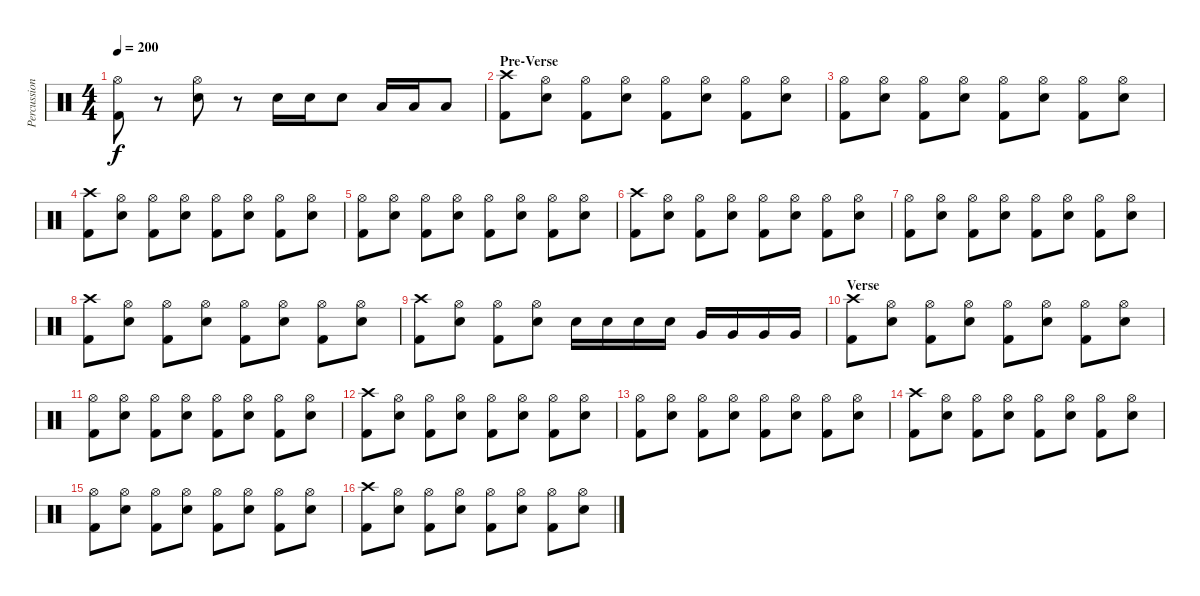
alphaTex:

\track ("Percussion" "Percussion") {instrument percussion}
\staff {score}
\articulation defaults
\ts (4 4)
\tempo 200
\clef neutral
\ks c
("Hi-Hat (open)" "Kick (hit) 2").8{dy f} r.8 ("Hi-Hat (open)" "Snare (hit) 2").8 r.8 "Snare (hit) 2".16 "Snare (hit) 2".16 "Snare (hit) 2".8 "Low Floor Tom (hit)".16 "Low Floor Tom (hit)".16 "Low Floor Tom (hit)".8 |
\section ("" "Pre-Verse")
("Crash high (hit)" "Kick (hit) 2").8 ("Hi-Hat (open)" "Snare (hit) 2").8 ("Hi-Hat (open)" "Kick (hit) 2").8 ("Hi-Hat (open)" "Snare (hit) 2").8 ("Hi-Hat (open)" "Kick (hit) 2").8 ("Hi-Hat (open)" "Snare (hit) 2").8 ("Hi-Hat (open)" "Kick (hit) 2").8 ("Hi-Hat (open)" "Snare (hit) 2").8 |
("Hi-Hat (open)" "Kick (hit) 2").8 ("Hi-Hat (open)" "Snare (hit) 2").8 ("Hi-Hat (open)" "Kick (hit) 2").8 ("Hi-Hat (open)" "Snare (hit) 2").8 ("Hi-Hat (open)" "Kick (hit) 2").8 ("Hi-Hat (open)" "Snare (hit) 2").8 ("Hi-Hat (open)" "Kick (hit) 2").8 ("Hi-Hat (open)" "Snare (hit) 2").8 |
("Crash high (hit)" "Kick (hit) 2").8 ("Hi-Hat (open)" "Snare (hit) 2").8 ("Hi-Hat (open)" "Kick (hit) 2").8 ("Hi-Hat (open)" "Snare (hit) 2").8 ("Hi-Hat (open)" "Kick (hit) 2").8 ("Hi-Hat (open)" "Snare (hit) 2").8 ("Hi-Hat (open)" "Kick (hit) 2").8 ("Hi-Hat (open)" "Snare (hit) 2").8 |
("Hi-Hat (open)" "Kick (hit) 2").8 ("Hi-Hat (open)" "Snare (hit) 2").8 ("Hi-Hat (open)" "Kick (hit) 2").8 ("Hi-Hat (open)" "Snare (hit) 2").8 ("Hi-Hat (open)" "Kick (hit) 2").8 ("Hi-Hat (open)" "Snare (hit) 2").8 ("Hi-Hat (open)" "Kick (hit) 2").8 ("Hi-Hat (open)" "Snare (hit) 2").8 |
("Crash high (hit)" "Kick (hit) 2").8 ("Hi-Hat (open)" "Snare (hit) 2").8 ("Hi-Hat (open)" "Kick (hit) 2").8 ("Hi-Hat (open)" "Snare (hit) 2").8 ("Hi-Hat (open)" "Kick (hit) 2").8 ("Hi-Hat (open)" "Snare (hit) 2").8 ("Hi-Hat (open)" "Kick (hit) 2").8 ("Hi-Hat (open)" "Snare (hit) 2").8 |
("Hi-Hat (open)" "Kick (hit) 2").8 ("Hi-Hat (open)" "Snare (hit) 2").8 ("Hi-Hat (open)" "Kick (hit) 2").8 ("Hi-Hat (open)" "Snare (hit) 2").8 ("Hi-Hat (open)" "Kick (hit) 2").8 ("Hi-Hat (open)" "Snare (hit) 2").8 ("Hi-Hat (open)" "Kick (hit) 2").8 ("Hi-Hat (open)" "Snare (hit) 2").8 |
("Crash high (hit)" "Kick (hit) 2").8 ("Hi-Hat (open)" "Snare (hit) 2").8 ("Hi-Hat (open)" "Kick (hit) 2").8 ("Hi-Hat (open)" "Snare (hit) 2").8 ("Hi-Hat (open)" "Kick (hit) 2").8 ("Hi-Hat (open)" "Snare (hit) 2").8 ("Hi-Hat (open)" "Kick (hit) 2").8 ("Hi-Hat (open)" "Snare (hit) 2").8 |
("Crash high (hit)" "Kick (hit) 2").8 ("Hi-Hat (open)" "Snare (hit) 2").8 ("Hi-Hat (open)" "Kick (hit) 2").8 ("Hi-Hat (open)" "Snare (hit) 2").8 "Snare (hit) 2".16 "Snare (hit) 2".16 "Snare (hit) 2".16 "Snare (hit) 2".16 "Very Low Tom (hit)".16 "Very Low Tom (hit)".16 "Very Low Tom (hit)".16 "Very Low Tom (hit)".16 |
\section ("" "Verse")
("Crash high (hit)" "Kick (hit) 2").8 ("Hi-Hat (open)" "Snare (hit) 2").8 ("Hi-Hat (open)" "Kick (hit) 2").8 ("Hi-Hat (open)" "Snare (hit) 2").8 ("Hi-Hat (open)" "Kick (hit) 2").8 ("Hi-Hat (open)" "Snare (hit) 2").8 ("Hi-Hat (open)" "Kick (hit) 2").8 ("Hi-Hat (open)" "Snare (hit) 2").8 |
("Hi-Hat (open)" "Kick (hit) 2").8 ("Hi-Hat (open)" "Snare (hit) 2").8 ("Hi-Hat (open)" "Kick (hit) 2").8 ("Hi-Hat (open)" "Snare (hit) 2").8 ("Hi-Hat (open)" "Kick (hit) 2").8 ("Hi-Hat (open)" "Snare (hit) 2").8 ("Hi-Hat (open)" "Kick (hit) 2").8 ("Hi-Hat (open)" "Snare (hit) 2").8 |
("Crash high (hit)" "Kick (hit) 2").8 ("Hi-Hat (open)" "Snare (hit) 2").8 ("Hi-Hat (open)" "Kick (hit) 2").8 ("Hi-Hat (open)" "Snare (hit) 2").8 ("Hi-Hat (open)" "Kick (hit) 2").8 ("Hi-Hat (open)" "Snare (hit) 2").8 ("Hi-Hat (open)" "Kick (hit) 2").8 ("Hi-Hat (open)" "Snare (hit) 2").8 |
("Hi-Hat (open)" "Kick (hit) 2").8 ("Hi-Hat (open)" "Snare (hit) 2").8 ("Hi-Hat (open)" "Kick (hit) 2").8 ("Hi-Hat (open)" "Snare (hit) 2").8 ("Hi-Hat (open)" "Kick (hit) 2").8 ("Hi-Hat (open)" "Snare (hit) 2").8 ("Hi-Hat (open)" "Kick (hit) 2").8 ("Hi-Hat (open)" "Snare (hit) 2").8 |
("Crash high (hit)" "Kick (hit) 2").8 ("Hi-Hat (open)" "Snare (hit) 2").8 ("Hi-Hat (open)" "Kick (hit) 2").8 ("Hi-Hat (open)" "Snare (hit) 2").8 ("Hi-Hat (open)" "Kick (hit) 2").8 ("Hi-Hat (open)" "Snare (hit) 2").8 ("Hi-Hat (open)" "Kick (hit) 2").8 ("Hi-Hat (open)" "Snare (hit) 2").8 |
("Hi-Hat (open)" "Kick (hit) 2").8 ("Hi-Hat (open)" "Snare (hit) 2").8 ("Hi-Hat (open)" "Kick (hit) 2").8 ("Hi-Hat (open)" "Snare (hit) 2").8 ("Hi-Hat (open)" "Kick (hit) 2").8 ("Hi-Hat (open)" "Snare (hit) 2").8 ("Hi-Hat (open)" "Kick (hit) 2").8 ("Hi-Hat (open)" "Snare (hit) 2").8 |
("Crash high (hit)" "Kick (hit) 2").8 ("Hi-Hat (open)" "Snare (hit) 2").8 ("Hi-Hat (open)" "Kick (hit) 2").8 ("Hi-Hat (open)" "Snare (hit) 2").8 ("Hi-Hat (open)" "Kick (hit) 2").8 ("Hi-Hat (open)" "Snare (hit) 2").8 ("Hi-Hat (open)" "Kick (hit) 2").8 ("Hi-Hat (open)" "Snare (hit) 2").8
